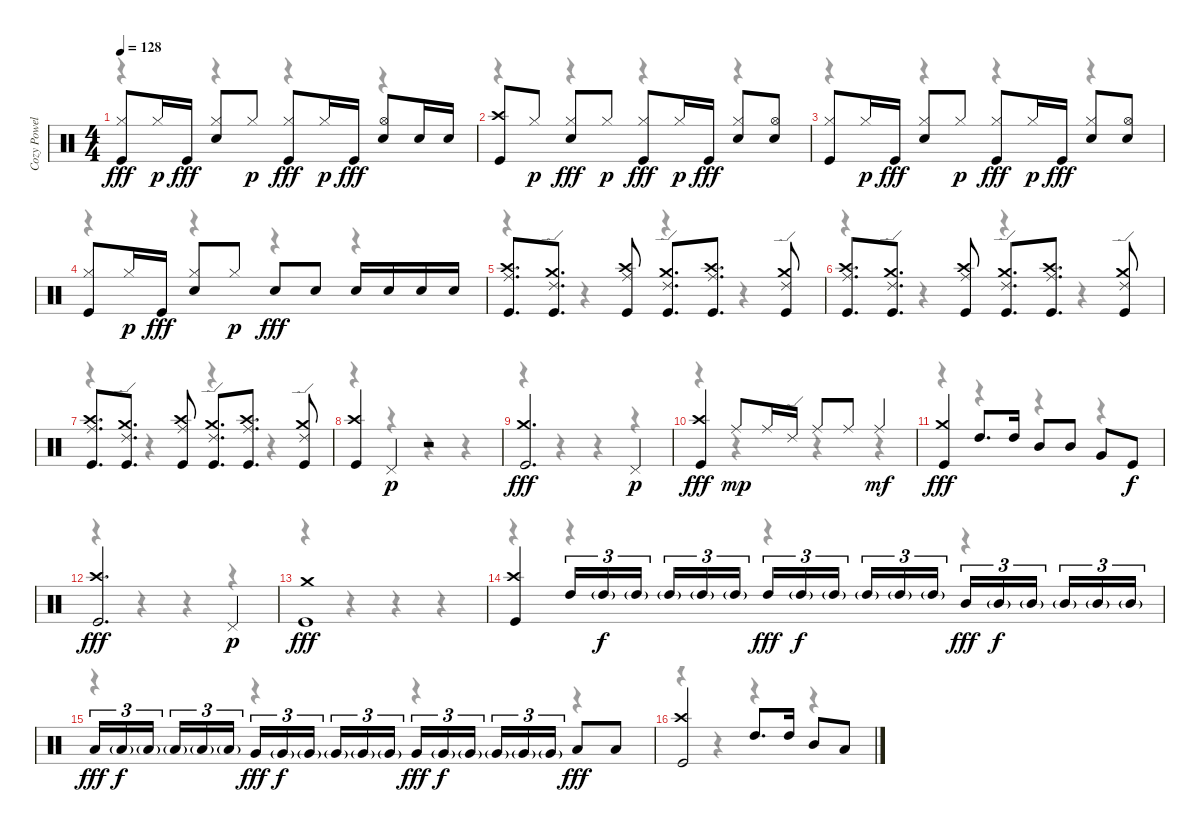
\track ("Cozy Powell - Drums" "Cozy Powel") {instrument percussion}
\staff {score}
\articulation defaults
\voice
\ts (4 4)
\tempo 128
\clef neutral
\ks c
("Kick (hit)" "Hi-Hat (closed)").8{dy fff} "Hi-Hat (closed)".16{dy p} "Kick (hit)".16{dy fff} ("Snare (hit) 2" "Hi-Hat (closed)").8 "Hi-Hat (closed)".8{dy p} ("Kick (hit)" "Hi-Hat (closed)").8{dy fff} "Hi-Hat (closed)".16{dy p} "Kick (hit)".16{dy fff} ("Snare (hit) 2" "Hi-Hat (open)").8 "Snare (hit) 2".16 "Snare (hit) 2".16 |
("Kick (hit)" "Crash high (hit)").8 "Hi-Hat (closed)".8{dy p} ("Snare (hit) 2" "Hi-Hat (closed)").8{dy fff} "Hi-Hat (closed)".8{dy p} ("Kick (hit)" "Hi-Hat (closed)").8{dy fff} "Hi-Hat (closed)".16{dy p} "Kick (hit)".16{dy fff} ("Snare (hit) 2" "Hi-Hat (closed)").8 ("Snare (hit) 2" "Hi-Hat (open)").8 |
("Kick (hit)" "Hi-Hat (closed)").8 "Hi-Hat (closed)".16{dy p} "Kick (hit)".16{dy fff} ("Snare (hit) 2" "Hi-Hat (closed)").8 "Hi-Hat (closed)".8{dy p} ("Kick (hit)" "Hi-Hat (closed)").8{dy fff} "Hi-Hat (closed)".16{dy p} "Kick (hit)".16{dy fff} ("Snare (hit) 2" "Hi-Hat (closed)").8 ("Snare (hit) 2" "Hi-Hat (open)").8 |
("Kick (hit)" "Hi-Hat (closed)").8 "Hi-Hat (closed)".16{dy p} "Kick (hit)".16{dy fff} ("Snare (hit) 2" "Hi-Hat (closed)").8 "Hi-Hat (closed)".8{dy p} "Snare (hit) 2".8{dy fff} "Snare (hit) 2".8 "Snare (hit) 2".16 "Snare (hit) 2".16 "Snare (hit) 2".16 "Snare (hit) 2".16 |
("Kick (hit)" "Ride (middle)" "Crash high (hit)").8{d} ("Kick (hit)" "Ride (edge) 2" "Crash medium (hit)").8{d} ("Kick (hit)" "Ride (middle)" "Crash high (hit)").8 ("Kick (hit)" "Ride (edge) 2" "Crash medium (hit)").8{d} ("Kick (hit)" "Ride (middle)" "Crash high (hit)").8{d} ("Kick (hit)" "Ride (edge) 2" "Crash medium (hit)").8 |
("Kick (hit)" "Ride (middle)" "Crash high (hit)").8{d} ("Kick (hit)" "Ride (edge) 2" "Crash medium (hit)").8{d} ("Kick (hit)" "Ride (middle)" "Crash high (hit)").8 ("Kick (hit)" "Ride (edge) 2" "Crash medium (hit)").8{d} ("Kick (hit)" "Ride (middle)" "Crash high (hit)").8{d} ("Kick (hit)" "Ride (edge) 2" "Crash medium (hit)").8 |
("Kick (hit)" "Ride (middle)" "Crash high (hit)").8{d} ("Kick (hit)" "Ride (edge) 2" "Crash medium (hit)").8{d} ("Kick (hit)" "Ride (middle)" "Crash high (hit)").8 ("Kick (hit)" "Ride (edge) 2" "Crash medium (hit)").8{d} ("Kick (hit)" "Ride (middle)" "Crash high (hit)").8{d} ("Kick (hit)" "Ride (edge) 2" "Crash medium (hit)").8 |
("Kick (hit)" "Crash high (hit)").4 "Pedal Hi-Hat (hit)".4{dy p} r.2 |
("Kick (hit)" "Crash medium (hit)").2{d dy fff} "Pedal Hi-Hat (hit)".4{dy p} |
("Kick (hit)" "Crash high (hit)").4{dy fff} "Ride (middle)".8{dy mp} "Ride (middle)".16 "Ride (edge) 2".16 "Ride (middle)".8 "Ride (middle)".8 "Ride (middle)".4{dy mf} |
("Kick (hit)" "Crash medium (hit)").4{dy fff} "High Tom (hit)".8{d} "High Tom (hit)".16 "Mid Tom (hit)".8 "Mid Tom (hit)".8 "Very Low Tom (hit)".8 "Kick (hit)".8{dy f} |
("Kick (hit)" "Crash high (hit)").2{d dy fff} "Pedal Hi-Hat (hit)".4{dy p} |
("Kick (hit)" "Crash medium (hit)").1{dy fff} |
("Kick (hit)" "Crash high (hit)").4 "High Tom (hit)".16{tu (3 2)} "High Tom (hit)"{g}.16{tu (3 2) dy f} "High Tom (hit)"{g}.16{tu (3 2)} "High Tom (hit)"{g}.16{tu (3 2)} "High Tom (hit)"{g}.16{tu (3 2)} "High Tom (hit)"{g}.16{tu (3 2)} "High Tom (hit)".16{tu (3 2) dy fff} "High Tom (hit)"{g}.16{tu (3 2) dy f} "High Tom (hit)"{g}.16{tu (3 2)} "High Tom (hit)"{g}.16{tu (3 2)} "High Tom (hit)"{g}.16{tu (3 2)} "High Tom (hit)"{g}.16{tu (3 2)} "Mid Tom (hit)".16{tu (3 2) dy fff} "Mid Tom (hit)"{g}.16{tu (3 2) dy f} "Mid Tom (hit)"{g}.16{tu (3 2)} "Mid Tom (hit)"{g}.16{tu (3 2)} "Mid Tom (hit)"{g}.16{tu (3 2)} "Mid Tom (hit)"{g}.16{tu (3 2)} |
"Low Tom (hit)".16{tu (3 2) dy fff} "Low Tom (hit)"{g}.16{tu (3 2) dy f} "Low Tom (hit)"{g}.16{tu (3 2)} "Low Tom (hit)"{g}.16{tu (3 2)} "Low Tom (hit)"{g}.16{tu (3 2)} "Low Tom (hit)"{g}.16{tu (3 2)} "Very Low Tom (hit)".16{tu (3 2) dy fff} "Very Low Tom (hit)"{g}.16{tu (3 2) dy f} "Very Low Tom (hit)"{g}.16{tu (3 2)} "Very Low Tom (hit)"{g}.16{tu (3 2)} "Very Low Tom (hit)"{g}.16{tu (3 2)} "Very Low Tom (hit)"{g}.16{tu (3 2)} "Very Low Tom (hit)".16{tu (3 2) dy fff} "Very Low Tom (hit)"{g}.16{tu (3 2) dy f} "Very Low Tom (hit)"{g}.16{tu (3 2)} "Very Low Tom (hit)"{g}.16{tu (3 2)} "Very Low Tom (hit)"{g}.16{tu (3 2)} "Very Low Tom (hit)"{g}.16{tu (3 2)} "Low Floor Tom (hit)".8{dy fff} "Low Floor Tom (hit)".8 |
("Kick (hit)" "Crash high (hit)").2 "High Tom (hit)".8{d} "High Tom (hit)".16 "Mid Tom (hit)".8 "Low Tom (hit)".8
\voice
\clef neutral
\ottava regular
\simile none
\ks c
r.4{dy f} r.4 r.4 r.4 |
r.4 r.4 r.4 r.4 |
r.4 r.4 r.4 r.4 |
r.4 r.4 r.4 r.4 |
r.4 r.4 r.4 r.4 |
r.4 r.4 r.4 r.4 |
r.4 r.4 r.4 r.4 |
r.4 r.4 r.4 r.4 |
r.4 r.4 r.4 r.4 |
r.4 r.4 r.4 r.4 |
r.4 r.4 r.4 r.4 |
r.4 r.4 r.4 r.4 |
r.4 r.4 r.4 r.4 |
r.4 r.4 r.4 r.4 |
r.4 r.4 r.4 r.4 |
r.4 r.4 r.4 r.4
